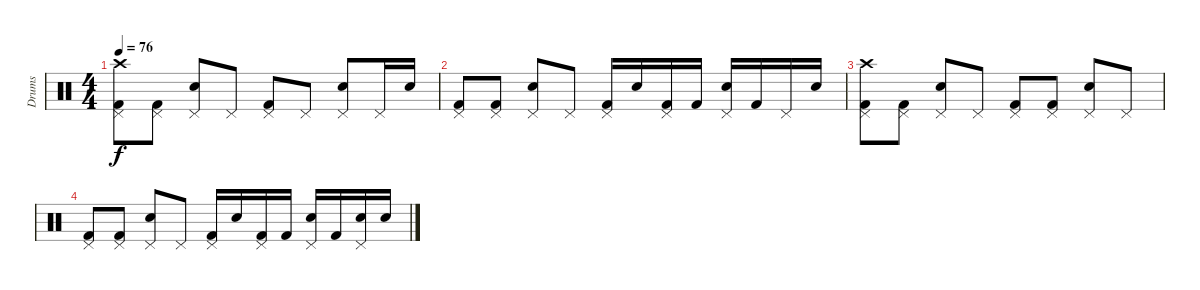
\track ("Drums" "Drums") {instrument percussion}
\staff {score}
\articulation defaults
\ts (4 4)
\tempo 76
\clef neutral
\ks c
("Crash high (hit)" "Pedal Hi-Hat (hit)" "Kick (hit) 2").8{dy f} ("Pedal Hi-Hat (hit)" "Kick (hit) 2").8 ("Pedal Hi-Hat (hit)" "Snare (hit) 2").8 "Pedal Hi-Hat (hit)".8 ("Pedal Hi-Hat (hit)" "Kick (hit) 2").8 "Pedal Hi-Hat (hit)".8 ("Pedal Hi-Hat (hit)" "Snare (hit) 2").8 "Pedal Hi-Hat (hit)".16 "Snare (hit) 2".16 |
("Pedal Hi-Hat (hit)" "Kick (hit) 2").8 ("Pedal Hi-Hat (hit)" "Kick (hit) 2").8 ("Pedal Hi-Hat (hit)" "Snare (hit) 2").8 "Pedal Hi-Hat (hit)".8 ("Pedal Hi-Hat (hit)" "Kick (hit) 2").16 "Snare (hit) 2".16 ("Pedal Hi-Hat (hit)" "Kick (hit) 2").16 "Kick (hit) 2".16 ("Pedal Hi-Hat (hit)" "Snare (hit) 2").16 "Kick (hit) 2".16 "Pedal Hi-Hat (hit)".16 "Snare (hit) 2".16 |
("Crash high (hit)" "Pedal Hi-Hat (hit)" "Kick (hit) 2").8 ("Pedal Hi-Hat (hit)" "Kick (hit) 2").8 ("Pedal Hi-Hat (hit)" "Snare (hit) 2").8 "Pedal Hi-Hat (hit)".8 ("Pedal Hi-Hat (hit)" "Kick (hit) 2").8 ("Pedal Hi-Hat (hit)" "Kick (hit) 2").8 ("Pedal Hi-Hat (hit)" "Snare (hit) 2").8 "Pedal Hi-Hat (hit)".8 |
("Pedal Hi-Hat (hit)" "Kick (hit) 2").8 ("Pedal Hi-Hat (hit)" "Kick (hit) 2").8 ("Pedal Hi-Hat (hit)" "Snare (hit) 2").8 "Pedal Hi-Hat (hit)".8 ("Pedal Hi-Hat (hit)" "Kick (hit) 2").16 "Snare (hit) 2".16 ("Pedal Hi-Hat (hit)" "Kick (hit) 2").16 "Kick (hit) 2".16 ("Pedal Hi-Hat (hit)" "Snare (hit) 2").16 "Kick (hit) 2".16 ("Pedal Hi-Hat (hit)" "Snare (hit) 2").16 "Snare (hit) 2".16
